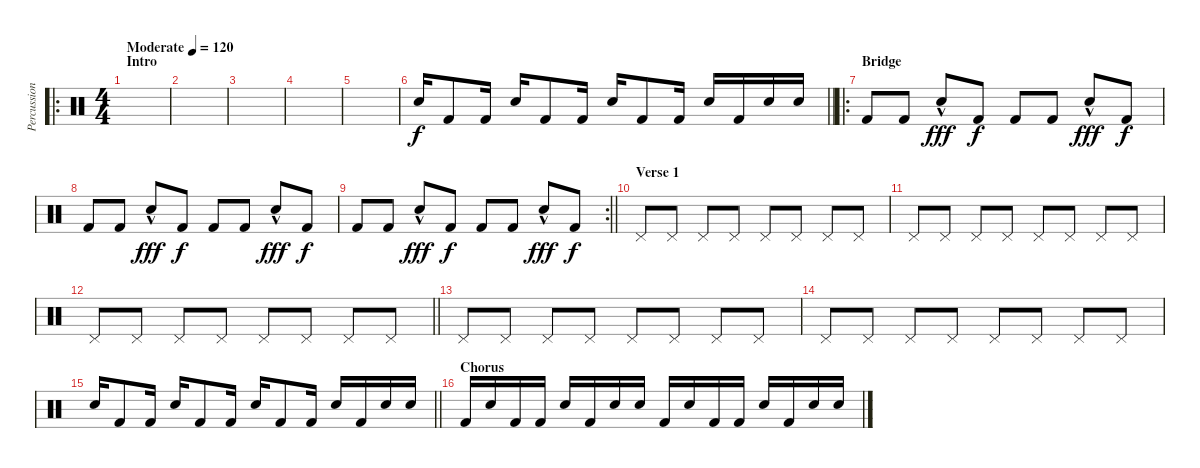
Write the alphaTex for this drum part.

\track ("Percussion" "Percussion") {instrument percussion}
\staff {score}
\articulation defaults
\ro
\ts (4 4)
\section ("" "Intro")
\tempo (120 "Moderate")
\clef neutral
\ks c
|
|
|
|
|
\barLineRight lightlight "Snare (hit) 2".16 "Kick (hit) 2".8 "Kick (hit) 2".16 "Snare (hit) 2".16 "Kick (hit) 2".8 "Kick (hit) 2".16 "Snare (hit) 2".16 "Kick (hit) 2".8 "Kick (hit) 2".16 "Snare (hit) 2".16 "Kick (hit) 2".16 "Snare (hit) 2".16 "Snare (hit) 2".16
|
\ro
\section ("" "Bridge")
"Kick (hit) 2".8 "Kick (hit) 2".8 "Snare (hit) 2"{hac}.8{dy fff} "Kick (hit) 2".8{dy f} "Kick (hit) 2".8 "Kick (hit) 2".8 "Snare (hit) 2"{hac}.8{dy fff} "Kick (hit) 2".8{dy f} |
"Kick (hit) 2".8 "Kick (hit) 2".8 "Snare (hit) 2"{hac}.8{dy fff} "Kick (hit) 2".8{dy f} "Kick (hit) 2".8 "Kick (hit) 2".8 "Snare (hit) 2"{hac}.8{dy fff} "Kick (hit) 2".8{dy f} |
\rc 2
\barLineRight lightlight "Kick (hit) 2".8 "Kick (hit) 2".8 "Snare (hit) 2"{hac}.8{dy fff} "Kick (hit) 2".8{dy f} "Kick (hit) 2".8 "Kick (hit) 2".8 "Snare (hit) 2"{hac}.8{dy fff} "Kick (hit) 2".8{dy f}
|
\section ("" "Verse 1")
"Pedal Hi-Hat (hit)".8 "Pedal Hi-Hat (hit)".8 "Pedal Hi-Hat (hit)".8 "Pedal Hi-Hat (hit)".8 "Pedal Hi-Hat (hit)".8 "Pedal Hi-Hat (hit)".8 "Pedal Hi-Hat (hit)".8 "Pedal Hi-Hat (hit)".8 |
"Pedal Hi-Hat (hit)".8 "Pedal Hi-Hat (hit)".8 "Pedal Hi-Hat (hit)".8 "Pedal Hi-Hat (hit)".8 "Pedal Hi-Hat (hit)".8 "Pedal Hi-Hat (hit)".8 "Pedal Hi-Hat (hit)".8 "Pedal Hi-Hat (hit)".8 |
\barLineRight lightlight "Pedal Hi-Hat (hit)".8 "Pedal Hi-Hat (hit)".8 "Pedal Hi-Hat (hit)".8 "Pedal Hi-Hat (hit)".8 "Pedal Hi-Hat (hit)".8 "Pedal Hi-Hat (hit)".8 "Pedal Hi-Hat (hit)".8 "Pedal Hi-Hat (hit)".8
|
"Pedal Hi-Hat (hit)".8 "Pedal Hi-Hat (hit)".8 "Pedal Hi-Hat (hit)".8 "Pedal Hi-Hat (hit)".8 "Pedal Hi-Hat (hit)".8 "Pedal Hi-Hat (hit)".8 "Pedal Hi-Hat (hit)".8 "Pedal Hi-Hat (hit)".8 |
"Pedal Hi-Hat (hit)".8 "Pedal Hi-Hat (hit)".8 "Pedal Hi-Hat (hit)".8 "Pedal Hi-Hat (hit)".8 "Pedal Hi-Hat (hit)".8 "Pedal Hi-Hat (hit)".8 "Pedal Hi-Hat (hit)".8 "Pedal Hi-Hat (hit)".8 |
\barLineRight lightlight "Snare (hit) 2".16 "Kick (hit) 2".8 "Kick (hit) 2".16 "Snare (hit) 2".16 "Kick (hit) 2".8 "Kick (hit) 2".16 "Snare (hit) 2".16 "Kick (hit) 2".8 "Kick (hit) 2".16 "Snare (hit) 2".16 "Kick (hit) 2".16 "Snare (hit) 2".16 "Snare (hit) 2".16
|
\section ("" "Chorus")
"Kick (hit) 2".16 "Snare (hit) 2".16 "Kick (hit) 2".16 "Kick (hit) 2".16 "Snare (hit) 2".16 "Kick (hit) 2".16 "Snare (hit) 2".16 "Snare (hit) 2".16 "Kick (hit) 2".16 "Snare (hit) 2".16 "Kick (hit) 2".16 "Kick (hit) 2".16 "Snare (hit) 2".16 "Kick (hit) 2".16 "Snare (hit) 2".16 "Snare (hit) 2".16
